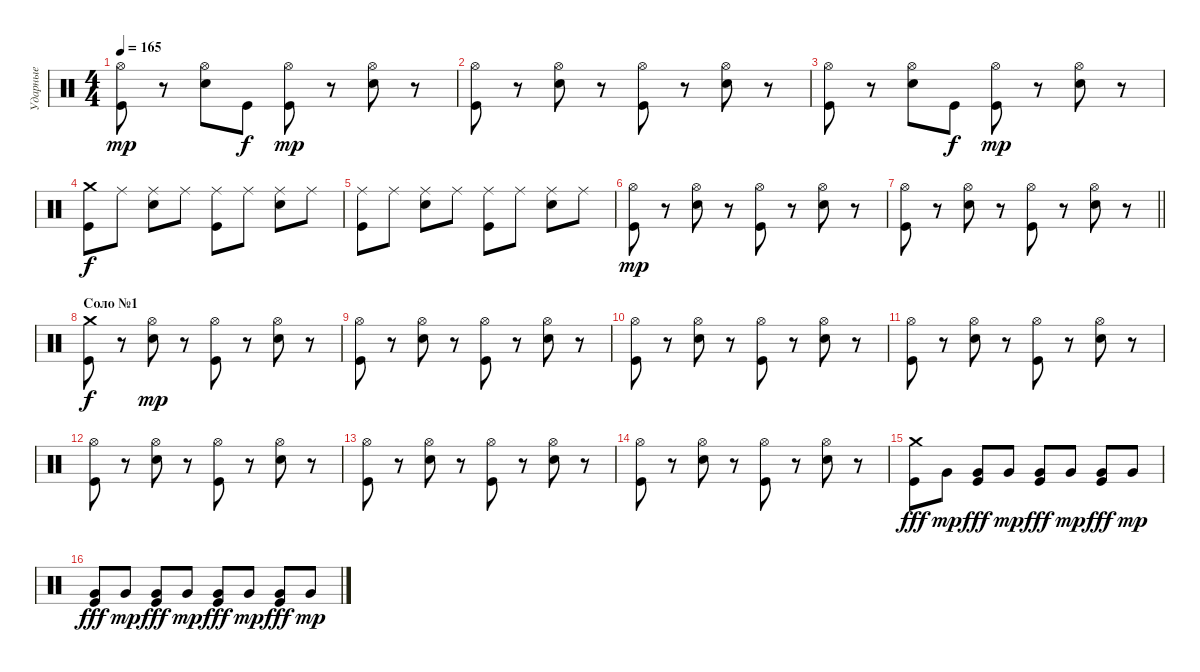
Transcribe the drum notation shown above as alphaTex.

\track ("Ударные" "Ударные") {instrument percussion}
\staff {score}
\articulation defaults
\ts (4 4)
\tempo 165
\clef neutral
\ks c
("Hi-Hat (open)" "Kick (hit)").8{dy mp} r.8 ("Hi-Hat (open)" "Electric Snare (hit)").8 "Kick (hit)".8{dy f} ("Hi-Hat (open)" "Kick (hit)").8{dy mp} r.8 ("Hi-Hat (open)" "Electric Snare (hit)").8 r.8 |
("Hi-Hat (open)" "Kick (hit)").8 r.8 ("Hi-Hat (open)" "Electric Snare (hit)").8 r.8 ("Hi-Hat (open)" "Kick (hit)").8 r.8 ("Hi-Hat (open)" "Electric Snare (hit)").8 r.8 |
("Hi-Hat (open)" "Kick (hit)").8 r.8 ("Hi-Hat (open)" "Electric Snare (hit)").8 "Kick (hit)".8{dy f} ("Hi-Hat (open)" "Kick (hit)").8{dy mp} r.8 ("Hi-Hat (open)" "Electric Snare (hit)").8 r.8 |
("Crash medium (hit)" "Kick (hit)").8{dy f} "Ride (middle)".8 ("Ride (middle)" "Electric Snare (hit)").8 "Ride (middle)".8 ("Ride (middle)" "Kick (hit)").8 "Ride (middle)".8 ("Ride (middle)" "Electric Snare (hit)").8 "Ride (middle)".8 |
("Ride (middle)" "Kick (hit)").8 "Ride (middle)".8 ("Ride (middle)" "Electric Snare (hit)").8 "Ride (middle)".8 ("Ride (middle)" "Kick (hit)").8 "Ride (middle)".8 ("Ride (middle)" "Electric Snare (hit)").8 "Ride (middle)".8 |
("Hi-Hat (open)" "Kick (hit)").8{dy mp} r.8 ("Hi-Hat (open)" "Electric Snare (hit)").8 r.8 ("Hi-Hat (open)" "Kick (hit)").8 r.8 ("Hi-Hat (open)" "Electric Snare (hit)").8 r.8 |
\barLineRight lightlight
("Hi-Hat (open)" "Kick (hit)").8 r.8 ("Hi-Hat (open)" "Electric Snare (hit)").8 r.8 ("Hi-Hat (open)" "Kick (hit)").8 r.8 ("Hi-Hat (open)" "Electric Snare (hit)").8 r.8 |
\section ("" "Соло №1")
("Crash medium (hit)" "Kick (hit)").8{dy f} r.8 ("Hi-Hat (open)" "Electric Snare (hit)").8{dy mp} r.8 ("Hi-Hat (open)" "Kick (hit)").8 r.8 ("Hi-Hat (open)" "Electric Snare (hit)").8 r.8 |
("Hi-Hat (open)" "Kick (hit)").8 r.8 ("Hi-Hat (open)" "Electric Snare (hit)").8 r.8 ("Hi-Hat (open)" "Kick (hit)").8 r.8 ("Hi-Hat (open)" "Electric Snare (hit)").8 r.8 |
("Hi-Hat (open)" "Kick (hit)").8 r.8 ("Hi-Hat (open)" "Electric Snare (hit)").8 r.8 ("Hi-Hat (open)" "Kick (hit)").8 r.8 ("Hi-Hat (open)" "Electric Snare (hit)").8 r.8 |
("Hi-Hat (open)" "Kick (hit)").8 r.8 ("Hi-Hat (open)" "Electric Snare (hit)").8 r.8 ("Hi-Hat (open)" "Kick (hit)").8 r.8 ("Hi-Hat (open)" "Electric Snare (hit)").8 r.8 |
("Hi-Hat (open)" "Kick (hit)").8 r.8 ("Hi-Hat (open)" "Electric Snare (hit)").8 r.8 ("Hi-Hat (open)" "Kick (hit)").8 r.8 ("Hi-Hat (open)" "Electric Snare (hit)").8 r.8 |
("Hi-Hat (open)" "Kick (hit)").8 r.8 ("Hi-Hat (open)" "Electric Snare (hit)").8 r.8 ("Hi-Hat (open)" "Kick (hit)").8 r.8 ("Hi-Hat (open)" "Electric Snare (hit)").8 r.8 |
("Hi-Hat (open)" "Kick (hit)").8 r.8 ("Hi-Hat (open)" "Electric Snare (hit)").8 r.8 ("Hi-Hat (open)" "Kick (hit)").8 r.8 ("Hi-Hat (open)" "Electric Snare (hit)").8 r.8 |
("Crash medium (hit)" "Kick (hit)").8{dy fff} "Very Low Tom (hit)".8{dy mp} ("Very Low Tom (hit)" "Kick (hit)").8{dy fff} "Very Low Tom (hit)".8{dy mp} ("Very Low Tom (hit)" "Kick (hit)").8{dy fff} "Very Low Tom (hit)".8{dy mp} ("Very Low Tom (hit)" "Kick (hit)").8{dy fff} "Very Low Tom (hit)".8{dy mp} |
("Very Low Tom (hit)" "Kick (hit)").8{dy fff} "Very Low Tom (hit)".8{dy mp} ("Very Low Tom (hit)" "Kick (hit)").8{dy fff} "Very Low Tom (hit)".8{dy mp} ("Very Low Tom (hit)" "Kick (hit)").8{dy fff} "Very Low Tom (hit)".8{dy mp} ("Very Low Tom (hit)" "Kick (hit)").8{dy fff} "Very Low Tom (hit)".8{dy mp}
